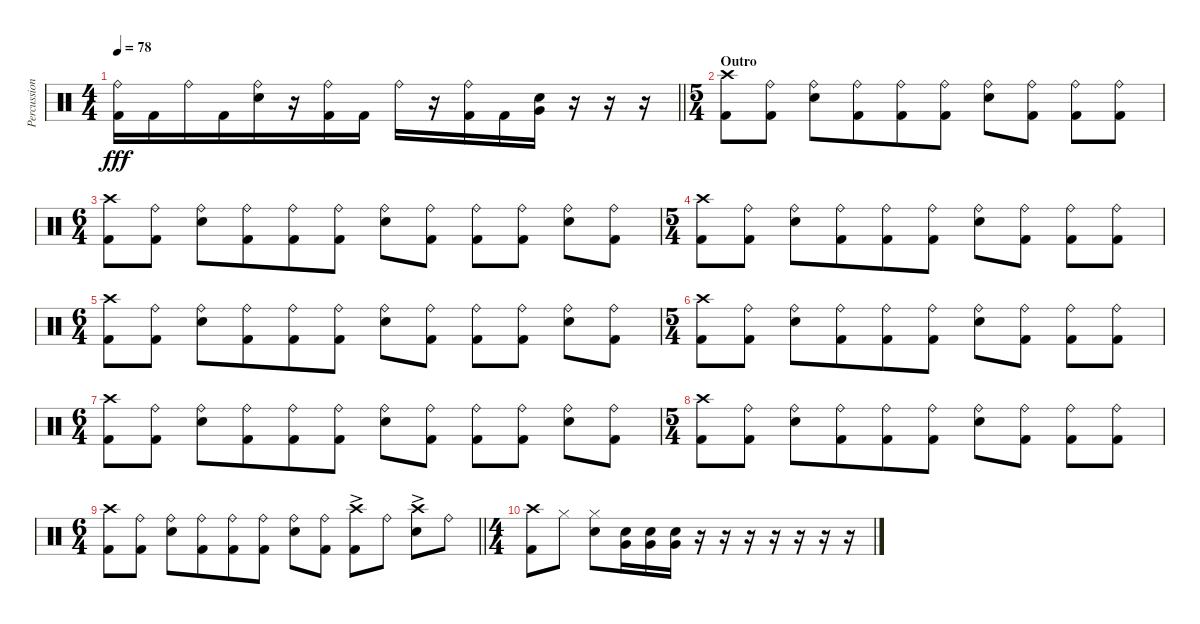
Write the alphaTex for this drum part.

\track ("Percussion" "Percussion") {instrument percussion}
\staff {score}
\articulation defaults
\ts (4 4)
\tempo 78
\clef neutral
\barLineRight lightlight
\ks c
("Kick (hit) 2" "Ride (bell)").16{dy fff beam merge} "Kick (hit) 2".16 "Ride (bell)".16 "Kick (hit) 2".16{beam merge} ("Electric Snare (hit)" "Ride (bell)").16 r.16 ("Kick (hit) 2" "Ride (bell)").16 "Kick (hit) 2".16 "Ride (bell)".16 r.16 ("Kick (hit) 2" "Ride (bell)").16 "Kick (hit) 2".16{beam merge} ("Electric Snare (hit)" "Very Low Tom (hit)").16 r.16 r.16 r.16 |
\ts (5 4)
\section ("" "Outro")
("Kick (hit) 2" "Crash high (hit)").8{beam merge} ("Kick (hit) 2" "Ride (bell)").8 ("Electric Snare (hit)" "Ride (bell)").8 ("Kick (hit) 2" "Ride (bell)").8{beam merge} ("Kick (hit) 2" "Ride (bell)").8 ("Kick (hit) 2" "Ride (bell)").8 ("Electric Snare (hit)" "Ride (bell)").8 ("Kick (hit) 2" "Ride (bell)").8 ("Kick (hit) 2" "Ride (bell)").8 ("Kick (hit) 2" "Ride (bell)").8 |
\ts (6 4)
("Kick (hit) 2" "Crash high (hit)").8{beam merge} ("Kick (hit) 2" "Ride (bell)").8 ("Electric Snare (hit)" "Ride (bell)").8 ("Kick (hit) 2" "Ride (bell)").8{beam merge} ("Kick (hit) 2" "Ride (bell)").8 ("Kick (hit) 2" "Ride (bell)").8 ("Electric Snare (hit)" "Ride (bell)").8 ("Kick (hit) 2" "Ride (bell)").8 ("Kick (hit) 2" "Ride (bell)").8 ("Kick (hit) 2" "Ride (bell)").8 ("Electric Snare (hit)" "Ride (bell)").8{beam merge} ("Kick (hit) 2" "Ride (bell)").8 |
\ts (5 4)
("Kick (hit) 2" "Crash high (hit)").8{beam merge} ("Kick (hit) 2" "Ride (bell)").8 ("Electric Snare (hit)" "Ride (bell)").8 ("Kick (hit) 2" "Ride (bell)").8{beam merge} ("Kick (hit) 2" "Ride (bell)").8 ("Kick (hit) 2" "Ride (bell)").8 ("Electric Snare (hit)" "Ride (bell)").8 ("Kick (hit) 2" "Ride (bell)").8 ("Kick (hit) 2" "Ride (bell)").8 ("Kick (hit) 2" "Ride (bell)").8 |
\ts (6 4)
("Kick (hit) 2" "Crash high (hit)").8{beam merge} ("Kick (hit) 2" "Ride (bell)").8 ("Electric Snare (hit)" "Ride (bell)").8 ("Kick (hit) 2" "Ride (bell)").8{beam merge} ("Kick (hit) 2" "Ride (bell)").8 ("Kick (hit) 2" "Ride (bell)").8 ("Electric Snare (hit)" "Ride (bell)").8 ("Kick (hit) 2" "Ride (bell)").8 ("Kick (hit) 2" "Ride (bell)").8 ("Kick (hit) 2" "Ride (bell)").8 ("Electric Snare (hit)" "Ride (bell)").8{beam merge} ("Kick (hit) 2" "Ride (bell)").8 |
\ts (5 4)
("Kick (hit) 2" "Crash high (hit)").8{beam merge} ("Kick (hit) 2" "Ride (bell)").8 ("Electric Snare (hit)" "Ride (bell)").8 ("Kick (hit) 2" "Ride (bell)").8{beam merge} ("Kick (hit) 2" "Ride (bell)").8 ("Kick (hit) 2" "Ride (bell)").8 ("Electric Snare (hit)" "Ride (bell)").8 ("Kick (hit) 2" "Ride (bell)").8 ("Kick (hit) 2" "Ride (bell)").8 ("Kick (hit) 2" "Ride (bell)").8 |
\ts (6 4)
("Kick (hit) 2" "Crash high (hit)").8{beam merge} ("Kick (hit) 2" "Ride (bell)").8 ("Electric Snare (hit)" "Ride (bell)").8 ("Kick (hit) 2" "Ride (bell)").8{beam merge} ("Kick (hit) 2" "Ride (bell)").8 ("Kick (hit) 2" "Ride (bell)").8 ("Electric Snare (hit)" "Ride (bell)").8 ("Kick (hit) 2" "Ride (bell)").8 ("Kick (hit) 2" "Ride (bell)").8 ("Kick (hit) 2" "Ride (bell)").8 ("Electric Snare (hit)" "Ride (bell)").8{beam merge} ("Kick (hit) 2" "Ride (bell)").8 |
\ts (5 4)
("Kick (hit) 2" "Crash high (hit)").8{beam merge} ("Kick (hit) 2" "Ride (bell)").8 ("Electric Snare (hit)" "Ride (bell)").8 ("Kick (hit) 2" "Ride (bell)").8{beam merge} ("Kick (hit) 2" "Ride (bell)").8 ("Kick (hit) 2" "Ride (bell)").8 ("Electric Snare (hit)" "Ride (bell)").8 ("Kick (hit) 2" "Ride (bell)").8 ("Kick (hit) 2" "Ride (bell)").8 ("Kick (hit) 2" "Ride (bell)").8 |
\ts (6 4)
\barLineRight lightlight
("Kick (hit) 2" "Crash high (hit)").8{beam merge} ("Kick (hit) 2" "Ride (bell)").8 ("Electric Snare (hit)" "Ride (bell)").8 ("Kick (hit) 2" "Ride (bell)").8{beam merge} ("Kick (hit) 2" "Ride (bell)").8 ("Kick (hit) 2" "Ride (bell)").8 ("Electric Snare (hit)" "Ride (bell)").8 ("Kick (hit) 2" "Ride (bell)").8 ("Kick (hit) 2" "Crash high (hit)"{ac}).8 "Ride (bell)".8 ("Electric Snare (hit)" "Crash high (hit)"{ac}).8{beam merge} "Ride (bell)".8 |
\ts (4 4)
("Kick (hit) 2" "Crash high (hit)").8{beam merge} "Hi-Hat (closed)".8 ("Electric Snare (hit)" "Hi-Hat (closed)").8 ("Electric Snare (hit)" "Very Low Tom (hit)").16 ("Electric Snare (hit)" "Very Low Tom (hit)").16{beam merge} ("Electric Snare (hit)" "Very Low Tom (hit)").16{beam merge} r.16 r.16 r.16{beam merge} r.16{beam merge} r.16 r.16 r.16
